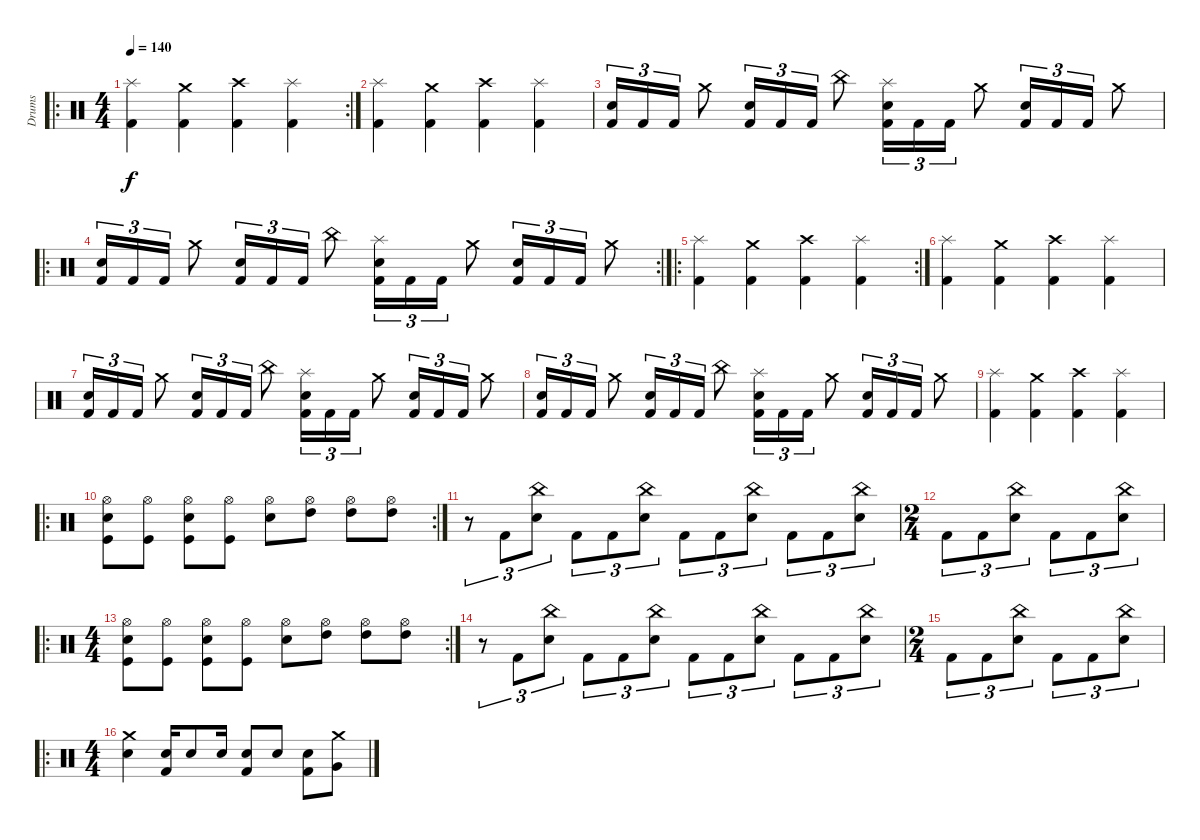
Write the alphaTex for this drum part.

\track ("Drums" "Drums") {instrument percussion}
\staff {score}
\articulation defaults
\ro
\rc 2
\ts (4 4)
\tempo 140
\clef neutral
\ks c
("Splash (hit)" "Kick (hit) 2").4{dy f} ("Crash medium (hit)" "Kick (hit) 2").4 ("Crash high (hit)" "Kick (hit) 2").4 ("Splash (hit)" "Kick (hit) 2").4 |
("Splash (hit)" "Kick (hit) 2").4 ("Crash medium (hit)" "Kick (hit) 2").4 ("Crash high (hit)" "Kick (hit) 2").4 ("Splash (hit)" "Kick (hit) 2").4 |
("Snare (hit) 2" "Kick (hit) 2").16{tu (3 2)} "Kick (hit) 2".16{tu (3 2)} "Kick (hit) 2".16{tu (3 2)} "Crash medium (hit)".8 ("Snare (hit) 2" "Kick (hit) 2").16{tu (3 2)} "Kick (hit) 2".16{tu (3 2)} "Kick (hit) 2".16{tu (3 2)} "China (hit)".8 ("Snare (hit) 2" "Splash (hit)" "Kick (hit) 2").16{tu (3 2)} "Kick (hit) 2".16{tu (3 2)} "Kick (hit) 2".16{tu (3 2)} "Crash medium (hit)".8 ("Snare (hit) 2" "Kick (hit) 2").16{tu (3 2)} "Kick (hit) 2".16{tu (3 2)} "Kick (hit) 2".16{tu (3 2)} "Crash medium (hit)".8 |
\ro
\rc 2
("Snare (hit) 2" "Kick (hit) 2").16{tu (3 2)} "Kick (hit) 2".16{tu (3 2)} "Kick (hit) 2".16{tu (3 2)} "Crash medium (hit)".8 ("Snare (hit) 2" "Kick (hit) 2").16{tu (3 2)} "Kick (hit) 2".16{tu (3 2)} "Kick (hit) 2".16{tu (3 2)} "China (hit)".8 ("Snare (hit) 2" "Splash (hit)" "Kick (hit) 2").16{tu (3 2)} "Kick (hit) 2".16{tu (3 2)} "Kick (hit) 2".16{tu (3 2)} "Crash medium (hit)".8 ("Snare (hit) 2" "Kick (hit) 2").16{tu (3 2)} "Kick (hit) 2".16{tu (3 2)} "Kick (hit) 2".16{tu (3 2)} "Crash medium (hit)".8 |
\ro
\rc 2
("Splash (hit)" "Kick (hit) 2").4 ("Crash medium (hit)" "Kick (hit) 2").4 ("Crash high (hit)" "Kick (hit) 2").4 ("Splash (hit)" "Kick (hit) 2").4 |
("Splash (hit)" "Kick (hit) 2").4 ("Crash medium (hit)" "Kick (hit) 2").4 ("Crash high (hit)" "Kick (hit) 2").4 ("Splash (hit)" "Kick (hit) 2").4 |
("Snare (hit) 2" "Kick (hit) 2").16{tu (3 2)} "Kick (hit) 2".16{tu (3 2)} "Kick (hit) 2".16{tu (3 2)} "Crash medium (hit)".8 ("Snare (hit) 2" "Kick (hit) 2").16{tu (3 2)} "Kick (hit) 2".16{tu (3 2)} "Kick (hit) 2".16{tu (3 2)} "China (hit)".8 ("Snare (hit) 2" "Splash (hit)" "Kick (hit) 2").16{tu (3 2)} "Kick (hit) 2".16{tu (3 2)} "Kick (hit) 2".16{tu (3 2)} "Crash medium (hit)".8 ("Snare (hit) 2" "Kick (hit) 2").16{tu (3 2)} "Kick (hit) 2".16{tu (3 2)} "Kick (hit) 2".16{tu (3 2)} "Crash medium (hit)".8 |
("Snare (hit) 2" "Kick (hit) 2").16{tu (3 2)} "Kick (hit) 2".16{tu (3 2)} "Kick (hit) 2".16{tu (3 2)} "Crash medium (hit)".8 ("Snare (hit) 2" "Kick (hit) 2").16{tu (3 2)} "Kick (hit) 2".16{tu (3 2)} "Kick (hit) 2".16{tu (3 2)} "China (hit)".8 ("Snare (hit) 2" "Splash (hit)" "Kick (hit) 2").16{tu (3 2)} "Kick (hit) 2".16{tu (3 2)} "Kick (hit) 2".16{tu (3 2)} "Crash medium (hit)".8 ("Snare (hit) 2" "Kick (hit) 2").16{tu (3 2)} "Kick (hit) 2".16{tu (3 2)} "Kick (hit) 2".16{tu (3 2)} "Crash medium (hit)".8 |
("Splash (hit)" "Kick (hit) 2").4 ("Crash medium (hit)" "Kick (hit) 2").4 ("Crash high (hit)" "Kick (hit) 2").4 ("Splash (hit)" "Kick (hit) 2").4 |
\ro
\rc 2
("Hi-Hat (open)" "Snare (hit) 2" "Kick (hit)").8 ("Hi-Hat (open)" "Kick (hit)").8 ("Hi-Hat (open)" "Snare (hit) 2" "Kick (hit)").8 ("Hi-Hat (open)" "Kick (hit)").8 ("Hi-Hat (open)" "Snare (hit) 2").8 ("Hi-Hat (open)" "High Tom (hit)").8 ("Hi-Hat (open)" "High Tom (hit)").8 ("Hi-Hat (open)" "High Tom (hit)").8 |
r.8{tu (3 2)} "Kick (hit) 2".8{tu (3 2)} ("China (hit)" "Snare (hit) 2").8{tu (3 2)} "Kick (hit) 2".8{tu (3 2)} "Kick (hit) 2".8{tu (3 2)} ("China (hit)" "Snare (hit) 2").8{tu (3 2)} "Kick (hit) 2".8{tu (3 2)} "Kick (hit) 2".8{tu (3 2)} ("China (hit)" "Snare (hit) 2").8{tu (3 2)} "Kick (hit) 2".8{tu (3 2)} "Kick (hit) 2".8{tu (3 2)} ("China (hit)" "Snare (hit) 2").8{tu (3 2)} |
\ts (2 4)
"Kick (hit) 2".8{tu (3 2)} "Kick (hit) 2".8{tu (3 2)} ("China (hit)" "Snare (hit) 2").8{tu (3 2)} "Kick (hit) 2".8{tu (3 2)} "Kick (hit) 2".8{tu (3 2)} ("China (hit)" "Snare (hit) 2").8{tu (3 2)} |
\ro
\rc 2
\ts (4 4)
("Hi-Hat (open)" "Snare (hit) 2" "Kick (hit)").8 ("Hi-Hat (open)" "Kick (hit)").8 ("Hi-Hat (open)" "Snare (hit) 2" "Kick (hit)").8 ("Hi-Hat (open)" "Kick (hit)").8 ("Hi-Hat (open)" "Snare (hit) 2").8 ("Hi-Hat (open)" "High Tom (hit)").8 ("Hi-Hat (open)" "High Tom (hit)").8 ("Hi-Hat (open)" "High Tom (hit)").8 |
r.8{tu (3 2)} "Kick (hit) 2".8{tu (3 2)} ("China (hit)" "Snare (hit) 2").8{tu (3 2)} "Kick (hit) 2".8{tu (3 2)} "Kick (hit) 2".8{tu (3 2)} ("China (hit)" "Snare (hit) 2").8{tu (3 2)} "Kick (hit) 2".8{tu (3 2)} "Kick (hit) 2".8{tu (3 2)} ("China (hit)" "Snare (hit) 2").8{tu (3 2)} "Kick (hit) 2".8{tu (3 2)} "Kick (hit) 2".8{tu (3 2)} ("China (hit)" "Snare (hit) 2").8{tu (3 2)} |
\ts (2 4)
"Kick (hit) 2".8{tu (3 2)} "Kick (hit) 2".8{tu (3 2)} ("China (hit)" "Snare (hit) 2").8{tu (3 2)} "Kick (hit) 2".8{tu (3 2)} "Kick (hit) 2".8{tu (3 2)} ("China (hit)" "Snare (hit) 2").8{tu (3 2)} |
\ro
\ts (4 4)
("Snare (hit) 2" "Crash medium (hit)").4 ("Snare (hit) 2" "Kick (hit) 2").16 "Snare (hit) 2".8 "Snare (hit) 2".16 ("Snare (hit) 2" "Kick (hit) 2").8 "Snare (hit) 2".8 ("Snare (hit) 2" "Kick (hit) 2").8 ("Very Low Tom (hit)" "Crash medium (hit)").8
